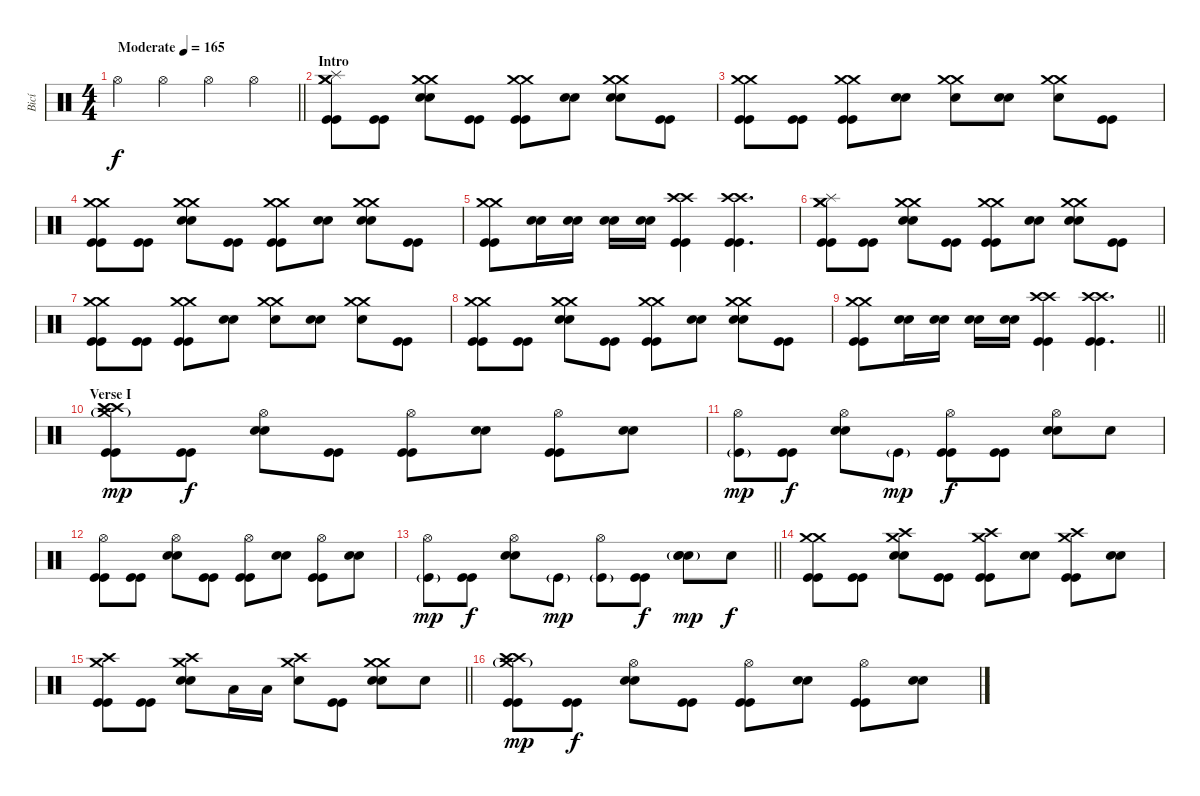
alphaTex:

\track ("Bicí" "Bicí") {instrument percussion}
\staff {score}
\articulation defaults
\ts (4 4)
\tempo (165 "Moderate")
\clef neutral
\barLineRight lightlight
\ks c "Hi-Hat (open)".4{dy f} "Hi-Hat (open)".4 "Hi-Hat (open)".4 "Hi-Hat (open)".4
|
\section ("" "Intro")
("Crash medium (hit)" "Crash medium (hit)" "Splash (hit)" "Kick (hit)" "Kick (hit)").8 ("Kick (hit)" "Kick (hit)").8 ("Crash medium (hit)" "Crash medium (hit)" "Electric Snare (hit)" "Electric Snare (hit)").8 ("Kick (hit)" "Kick (hit)").8 ("Crash medium (hit)" "Crash medium (hit)" "Kick (hit)" "Kick (hit)").8 ("Electric Snare (hit)" "Electric Snare (hit)").8 ("Crash medium (hit)" "Crash medium (hit)" "Electric Snare (hit)" "Electric Snare (hit)").8 ("Kick (hit)" "Kick (hit)").8 |
("Crash medium (hit)" "Crash medium (hit)" "Kick (hit)" "Kick (hit)").8 ("Kick (hit)" "Kick (hit)").8 ("Crash medium (hit)" "Crash medium (hit)" "Kick (hit)" "Kick (hit)").8 ("Electric Snare (hit)" "Electric Snare (hit)").8 ("Crash medium (hit)" "Crash medium (hit)" "Snare (hit)").8 ("Electric Snare (hit)" "Electric Snare (hit)").8 ("Crash medium (hit)" "Crash medium (hit)" "Snare (hit)").8 ("Kick (hit)" "Kick (hit)").8 |
("Crash medium (hit)" "Crash medium (hit)" "Kick (hit)" "Kick (hit)").8 ("Kick (hit)" "Kick (hit)").8 ("Crash medium (hit)" "Crash medium (hit)" "Electric Snare (hit)" "Electric Snare (hit)").8 ("Kick (hit)" "Kick (hit)").8 ("Crash medium (hit)" "Crash medium (hit)" "Kick (hit)" "Kick (hit)").8 ("Electric Snare (hit)" "Electric Snare (hit)").8 ("Crash medium (hit)" "Crash medium (hit)" "Electric Snare (hit)" "Electric Snare (hit)").8 ("Kick (hit)" "Kick (hit)").8 |
("Crash medium (hit)" "Crash medium (hit)" "Kick (hit)" "Kick (hit)").8 ("Electric Snare (hit)" "Electric Snare (hit)").16 ("Electric Snare (hit)" "Electric Snare (hit)").16 ("Electric Snare (hit)" "Electric Snare (hit)").16 ("Electric Snare (hit)" "Electric Snare (hit)").16 ("Crash high (hit)" "Crash high (hit)" "Kick (hit)" "Kick (hit)").4 ("Crash high (hit)" "Crash high (hit)" "Kick (hit)" "Kick (hit)").4{d} |
("Crash medium (hit)" "Crash medium (hit)" "Splash (hit)" "Kick (hit)" "Kick (hit)").8 ("Kick (hit)" "Kick (hit)").8 ("Crash medium (hit)" "Crash medium (hit)" "Electric Snare (hit)" "Electric Snare (hit)").8 ("Kick (hit)" "Kick (hit)").8 ("Crash medium (hit)" "Crash medium (hit)" "Kick (hit)" "Kick (hit)").8 ("Electric Snare (hit)" "Electric Snare (hit)").8 ("Crash medium (hit)" "Crash medium (hit)" "Electric Snare (hit)" "Electric Snare (hit)").8 ("Kick (hit)" "Kick (hit)").8 |
("Crash medium (hit)" "Crash medium (hit)" "Kick (hit)" "Kick (hit)").8 ("Kick (hit)" "Kick (hit)").8 ("Crash medium (hit)" "Crash medium (hit)" "Kick (hit)" "Kick (hit)").8 ("Electric Snare (hit)" "Electric Snare (hit)").8 ("Crash medium (hit)" "Crash medium (hit)" "Snare (hit)").8 ("Electric Snare (hit)" "Electric Snare (hit)").8 ("Crash medium (hit)" "Crash medium (hit)" "Snare (hit)").8 ("Kick (hit)" "Kick (hit)").8 |
("Crash medium (hit)" "Crash medium (hit)" "Kick (hit)" "Kick (hit)").8 ("Kick (hit)" "Kick (hit)").8 ("Crash medium (hit)" "Crash medium (hit)" "Electric Snare (hit)" "Electric Snare (hit)").8 ("Kick (hit)" "Kick (hit)").8 ("Crash medium (hit)" "Crash medium (hit)" "Kick (hit)" "Kick (hit)").8 ("Electric Snare (hit)" "Electric Snare (hit)").8 ("Crash medium (hit)" "Crash medium (hit)" "Electric Snare (hit)" "Electric Snare (hit)").8 ("Kick (hit)" "Kick (hit)").8 |
\barLineRight lightlight
("Crash medium (hit)" "Crash medium (hit)" "Kick (hit)" "Kick (hit)").8 ("Electric Snare (hit)" "Electric Snare (hit)").16 ("Electric Snare (hit)" "Electric Snare (hit)").16 ("Electric Snare (hit)" "Electric Snare (hit)").16 ("Electric Snare (hit)" "Electric Snare (hit)").16 ("Crash high (hit)" "Crash high (hit)" "Kick (hit)" "Kick (hit)").4 ("Crash high (hit)" "Crash high (hit)" "Kick (hit)" "Kick (hit)").4{d} |
\section ("" "Verse I")
("Crash high (hit)" "Crash high (hit)" "Crash medium (hit)"{g} "Kick (hit)" "Kick (hit)").8{dy mp} ("Kick (hit)" "Kick (hit)").8{dy f} ("Hi-Hat (open)" "Electric Snare (hit)" "Electric Snare (hit)").8 ("Kick (hit)" "Kick (hit)").8 ("Hi-Hat (open)" "Kick (hit)" "Kick (hit)").8 ("Electric Snare (hit)" "Electric Snare (hit)").8 ("Hi-Hat (open)" "Kick (hit)" "Kick (hit)").8 ("Electric Snare (hit)" "Electric Snare (hit)").8 |
("Hi-Hat (open)" "Kick (hit)"{g}).8{dy mp} ("Kick (hit)" "Kick (hit)").8{dy f} ("Hi-Hat (open)" "Electric Snare (hit)" "Electric Snare (hit)").8 "Kick (hit)"{g}.8{dy mp} ("Hi-Hat (open)" "Kick (hit)" "Kick (hit)").8{dy f} ("Kick (hit)" "Kick (hit)").8 ("Hi-Hat (open)" "Electric Snare (hit)" "Electric Snare (hit)").8 "Snare (hit)".8 |
("Hi-Hat (open)" "Kick (hit)" "Kick (hit)").8 ("Kick (hit)" "Kick (hit)").8 ("Hi-Hat (open)" "Electric Snare (hit)" "Electric Snare (hit)").8 ("Kick (hit)" "Kick (hit)").8 ("Hi-Hat (open)" "Kick (hit)" "Kick (hit)").8 ("Electric Snare (hit)" "Electric Snare (hit)").8 ("Hi-Hat (open)" "Kick (hit)" "Kick (hit)").8 ("Electric Snare (hit)" "Electric Snare (hit)").8 |
\barLineRight lightlight
("Hi-Hat (open)" "Kick (hit)"{g}).8{dy mp} ("Kick (hit)" "Kick (hit)").8{dy f} ("Hi-Hat (open)" "Electric Snare (hit)" "Electric Snare (hit)").8 "Kick (hit)"{g}.8{dy mp} ("Hi-Hat (open)" "Kick (hit)"{g}).8 ("Kick (hit)" "Kick (hit)").8{dy f} ("Snare (hit) 2"{g} "Electric Snare (hit)" "Electric Snare (hit)").8{dy mp} "Snare (hit)".8{dy f} |
\section ("" "")
("Crash medium (hit)" "Crash medium (hit)" "Kick (hit)" "Kick (hit)").8 ("Kick (hit)" "Kick (hit)").8 ("Crash high (hit)" "Crash medium (hit)" "Electric Snare (hit)" "Electric Snare (hit)").8 ("Kick (hit)" "Kick (hit)").8 ("Crash high (hit)" "Crash medium (hit)" "Kick (hit)" "Kick (hit)").8 ("Electric Snare (hit)" "Electric Snare (hit)").8 ("Crash high (hit)" "Crash medium (hit)" "Kick (hit)" "Kick (hit)").8 ("Electric Snare (hit)" "Electric Snare (hit)").8 |
\barLineRight lightlight
("Crash high (hit)" "Crash medium (hit)" "Kick (hit)" "Kick (hit)").8 ("Kick (hit)" "Kick (hit)").8 ("Crash high (hit)" "Crash medium (hit)" "Electric Snare (hit)" "Electric Snare (hit)").8 "Low Tom (hit)".16 "Low Tom (hit)".16 ("Crash high (hit)" "Crash medium (hit)" "Snare (hit)").8 ("Kick (hit)" "Kick (hit)").8 ("Crash medium (hit)" "Crash medium (hit)" "Electric Snare (hit)" "Electric Snare (hit)").8 "Snare (hit)".8 |
\section ("" "")
("Crash high (hit)" "Crash high (hit)" "Crash medium (hit)"{g} "Kick (hit)" "Kick (hit)").8{dy mp} ("Kick (hit)" "Kick (hit)").8{dy f} ("Hi-Hat (open)" "Electric Snare (hit)" "Electric Snare (hit)").8 ("Kick (hit)" "Kick (hit)").8 ("Hi-Hat (open)" "Kick (hit)" "Kick (hit)").8 ("Electric Snare (hit)" "Electric Snare (hit)").8 ("Hi-Hat (open)" "Kick (hit)" "Kick (hit)").8 ("Electric Snare (hit)" "Electric Snare (hit)").8
